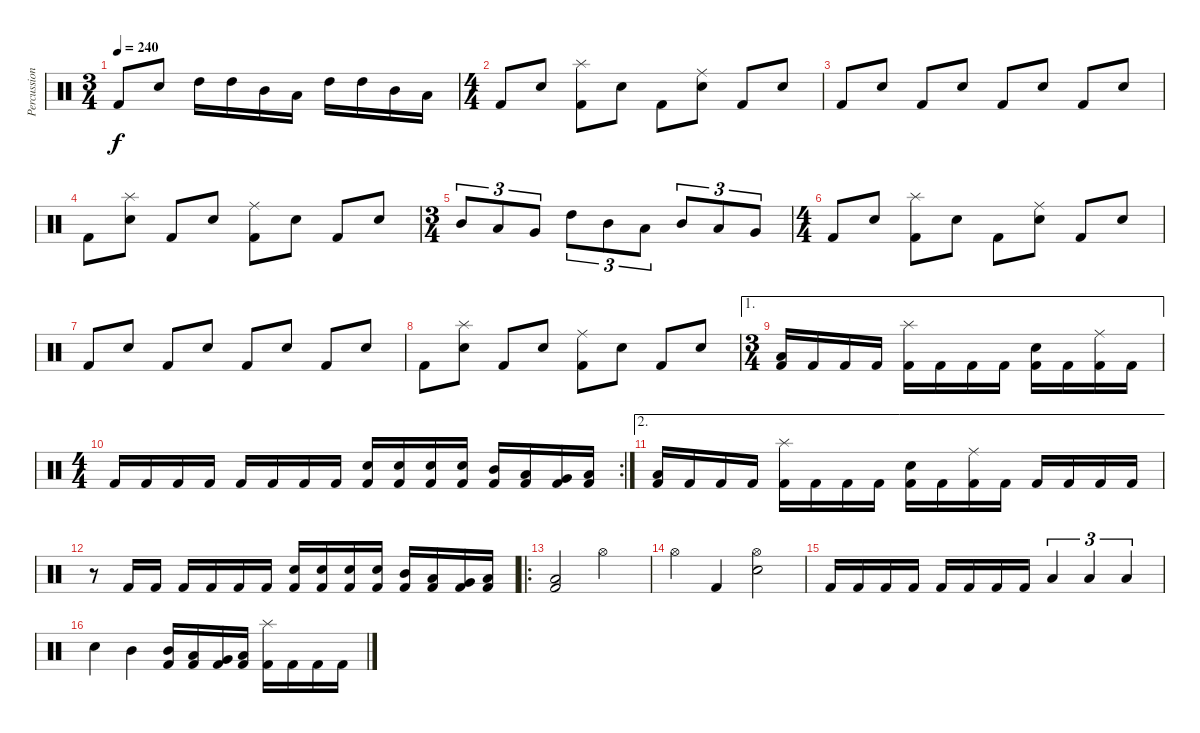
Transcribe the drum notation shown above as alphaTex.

\track ("Percussion" "Percussion") {instrument percussion}
\staff {score}
\articulation defaults
\ts (3 4)
\tempo 240
\clef neutral
\ks c "Kick (hit) 2".8{dy f} "Electric Snare (hit)".8 "High Tom (hit)".16 "High Tom (hit)".16 "Mid Tom (hit)".16 "Low Tom (hit)".16 "High Tom (hit)".16 "High Tom (hit)".16 "Mid Tom (hit)".16 "Low Tom (hit)".16
|
\ts (4 4)
"Kick (hit) 2".8 "Electric Snare (hit)".8 ("Kick (hit) 2" "Splash (hit)").8 "Electric Snare (hit)".8 "Kick (hit) 2".8 ("Electric Snare (hit)" "Ride (middle)").8 "Kick (hit) 2".8 "Electric Snare (hit)".8 |
"Kick (hit) 2".8 "Electric Snare (hit)".8 "Kick (hit) 2".8 "Electric Snare (hit)".8 "Kick (hit) 2".8 "Electric Snare (hit)".8 "Kick (hit) 2".8 "Electric Snare (hit)".8 |
"Kick (hit) 2".8 ("Electric Snare (hit)" "Splash (hit)").8 "Kick (hit) 2".8 "Electric Snare (hit)".8 ("Kick (hit) 2" "Ride (middle)").8 "Electric Snare (hit)".8 "Kick (hit) 2".8 "Electric Snare (hit)".8 |
\ts (3 4)
"Mid Tom (hit)".8{tu (3 2)} "Low Tom (hit)".8{tu (3 2)} "Very Low Tom (hit)".8{tu (3 2)} "High Tom (hit)".8{tu (3 2)} "Mid Tom (hit)".8{tu (3 2)} "Low Tom (hit)".8{tu (3 2)} "Mid Tom (hit)".8{tu (3 2)} "Low Tom (hit)".8{tu (3 2)} "Very Low Tom (hit)".8{tu (3 2)} |
\ts (4 4)
"Kick (hit) 2".8 "Electric Snare (hit)".8 ("Kick (hit) 2" "Splash (hit)").8 "Electric Snare (hit)".8 "Kick (hit) 2".8 ("Electric Snare (hit)" "Ride (middle)").8 "Kick (hit) 2".8 "Electric Snare (hit)".8 |
"Kick (hit) 2".8 "Electric Snare (hit)".8 "Kick (hit) 2".8 "Electric Snare (hit)".8 "Kick (hit) 2".8 "Electric Snare (hit)".8 "Kick (hit) 2".8 "Electric Snare (hit)".8 |
"Kick (hit) 2".8 ("Electric Snare (hit)" "Splash (hit)").8 "Kick (hit) 2".8 "Electric Snare (hit)".8 ("Kick (hit) 2" "Ride (middle)").8 "Electric Snare (hit)".8 "Kick (hit) 2".8 "Electric Snare (hit)".8 |
\ae 1
\ts (3 4)
("Kick (hit) 2" "Low Floor Tom (hit)").16 "Kick (hit) 2".16 "Kick (hit) 2".16 "Kick (hit) 2".16 ("Kick (hit) 2" "Splash (hit)").16 "Kick (hit) 2".16 "Kick (hit) 2".16 "Kick (hit) 2".16 ("Kick (hit) 2" "Electric Snare (hit)").16 "Kick (hit) 2".16 ("Kick (hit) 2" "Ride (middle)").16 "Kick (hit) 2".16 |
\rc 2
\ts (4 4)
"Kick (hit) 2".16 "Kick (hit) 2".16 "Kick (hit) 2".16 "Kick (hit) 2".16 "Kick (hit) 2".16 "Kick (hit) 2".16 "Kick (hit) 2".16 "Kick (hit) 2".16 ("Kick (hit) 2" "Electric Snare (hit)").16 ("Kick (hit) 2" "Electric Snare (hit)").16 ("Kick (hit) 2" "Electric Snare (hit)").16 ("Kick (hit) 2" "Electric Snare (hit)").16 ("Kick (hit) 2" "Mid Tom (hit)").16 ("Kick (hit) 2" "Low Tom (hit)").16 ("Kick (hit) 2" "Very Low Tom (hit)").16 ("Kick (hit) 2" "Low Floor Tom (hit)").16 |
\ae 2
("Kick (hit) 2" "Low Floor Tom (hit)").16 "Kick (hit) 2".16 "Kick (hit) 2".16 "Kick (hit) 2".16 ("Kick (hit) 2" "Splash (hit)").16 "Kick (hit) 2".16 "Kick (hit) 2".16 "Kick (hit) 2".16 ("Kick (hit) 2" "Electric Snare (hit)").16 "Kick (hit) 2".16 ("Kick (hit) 2" "Ride (middle)").16 "Kick (hit) 2".16 "Kick (hit) 2".16 "Kick (hit) 2".16 "Kick (hit) 2".16 "Kick (hit) 2".16 |
r.8 "Kick (hit) 2".16 "Kick (hit) 2".16 "Kick (hit) 2".16 "Kick (hit) 2".16 "Kick (hit) 2".16 "Kick (hit) 2".16 ("Kick (hit) 2" "Electric Snare (hit)").16 ("Kick (hit) 2" "Electric Snare (hit)").16 ("Kick (hit) 2" "Electric Snare (hit)").16 ("Kick (hit) 2" "Electric Snare (hit)").16 ("Kick (hit) 2" "Mid Tom (hit)").16 ("Kick (hit) 2" "Low Tom (hit)").16 ("Kick (hit) 2" "Very Low Tom (hit)").16 ("Kick (hit) 2" "Low Floor Tom (hit)").16 |
\ro
("Kick (hit) 2" "Low Floor Tom (hit)").2 "Hi-Hat (open)".2 |
"Hi-Hat (open)".4 "Kick (hit) 2".4 ("Electric Snare (hit)" "Hi-Hat (open)").2 |
"Kick (hit) 2".16 "Kick (hit) 2".16 "Kick (hit) 2".16 "Kick (hit) 2".16 "Kick (hit) 2".16 "Kick (hit) 2".16 "Kick (hit) 2".16 "Kick (hit) 2".16 "Low Floor Tom (hit)".4{tu (3 2)} "Low Floor Tom (hit)".4{tu (3 2)} "Low Floor Tom (hit)".4{tu (3 2)} |
"Electric Snare (hit)".4 "Mid Tom (hit)".4 ("Kick (hit) 2" "Mid Tom (hit)").16 ("Kick (hit) 2" "Low Tom (hit)").16 ("Kick (hit) 2" "Very Low Tom (hit)").16 ("Kick (hit) 2" "Low Floor Tom (hit)").16 ("Kick (hit) 2" "Splash (hit)").16 "Kick (hit) 2".16 "Kick (hit) 2".16 "Kick (hit) 2".16
